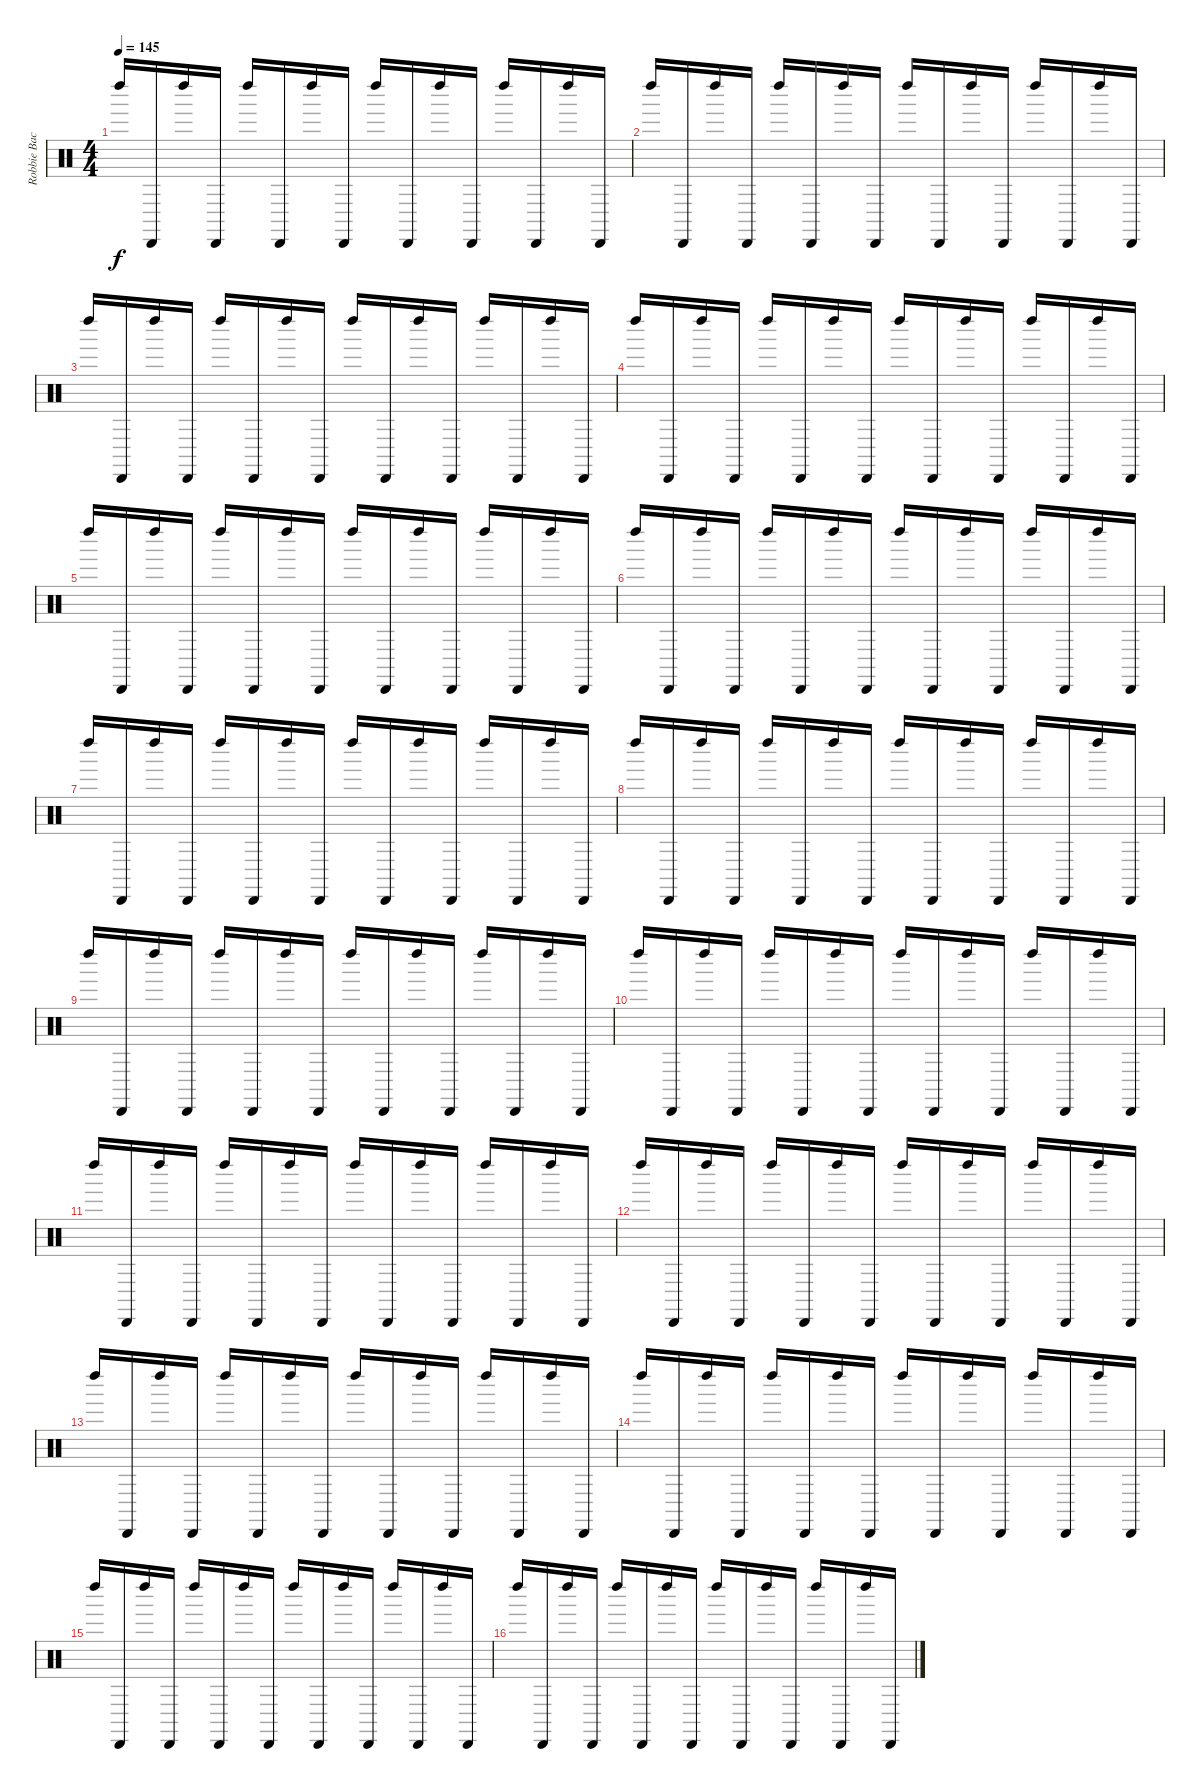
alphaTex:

\track ("Robbie Bachman 2" "Robbie Bac") {instrument percussion}
\staff {score}
\articulation defaults
\ts (4 4)
\tempo 145
\clef neutral
\ks c "Left Maraca (hit)".16{dy f} "Cabasa (hit)".16 "Left Maraca (hit)".16 "Cabasa (hit)".16 "Left Maraca (hit)".16 "Cabasa (hit)".16 "Left Maraca (hit)".16 "Cabasa (hit)".16 "Left Maraca (hit)".16 "Cabasa (hit)".16 "Left Maraca (hit)".16 "Cabasa (hit)".16 "Left Maraca (hit)".16 "Cabasa (hit)".16 "Left Maraca (hit)".16 "Cabasa (hit)".16
|
"Left Maraca (hit)".16 "Cabasa (hit)".16 "Left Maraca (hit)".16 "Cabasa (hit)".16 "Left Maraca (hit)".16 "Cabasa (hit)".16 "Left Maraca (hit)".16 "Cabasa (hit)".16 "Left Maraca (hit)".16 "Cabasa (hit)".16 "Left Maraca (hit)".16 "Cabasa (hit)".16 "Left Maraca (hit)".16 "Cabasa (hit)".16 "Left Maraca (hit)".16 "Cabasa (hit)".16 |
"Left Maraca (hit)".16 "Cabasa (hit)".16 "Left Maraca (hit)".16 "Cabasa (hit)".16 "Left Maraca (hit)".16 "Cabasa (hit)".16 "Left Maraca (hit)".16 "Cabasa (hit)".16 "Left Maraca (hit)".16 "Cabasa (hit)".16 "Left Maraca (hit)".16 "Cabasa (hit)".16 "Left Maraca (hit)".16 "Cabasa (hit)".16 "Left Maraca (hit)".16 "Cabasa (hit)".16 |
"Left Maraca (hit)".16 "Cabasa (hit)".16 "Left Maraca (hit)".16 "Cabasa (hit)".16 "Left Maraca (hit)".16 "Cabasa (hit)".16 "Left Maraca (hit)".16 "Cabasa (hit)".16 "Left Maraca (hit)".16 "Cabasa (hit)".16 "Left Maraca (hit)".16 "Cabasa (hit)".16 "Left Maraca (hit)".16 "Cabasa (hit)".16 "Left Maraca (hit)".16 "Cabasa (hit)".16 |
"Left Maraca (hit)".16 "Cabasa (hit)".16 "Left Maraca (hit)".16 "Cabasa (hit)".16 "Left Maraca (hit)".16 "Cabasa (hit)".16 "Left Maraca (hit)".16 "Cabasa (hit)".16 "Left Maraca (hit)".16 "Cabasa (hit)".16 "Left Maraca (hit)".16 "Cabasa (hit)".16 "Left Maraca (hit)".16 "Cabasa (hit)".16 "Left Maraca (hit)".16 "Cabasa (hit)".16 |
"Left Maraca (hit)".16 "Cabasa (hit)".16 "Left Maraca (hit)".16 "Cabasa (hit)".16 "Left Maraca (hit)".16 "Cabasa (hit)".16 "Left Maraca (hit)".16 "Cabasa (hit)".16 "Left Maraca (hit)".16 "Cabasa (hit)".16 "Left Maraca (hit)".16 "Cabasa (hit)".16 "Left Maraca (hit)".16 "Cabasa (hit)".16 "Left Maraca (hit)".16 "Cabasa (hit)".16 |
"Left Maraca (hit)".16 "Cabasa (hit)".16 "Left Maraca (hit)".16 "Cabasa (hit)".16 "Left Maraca (hit)".16 "Cabasa (hit)".16 "Left Maraca (hit)".16 "Cabasa (hit)".16 "Left Maraca (hit)".16 "Cabasa (hit)".16 "Left Maraca (hit)".16 "Cabasa (hit)".16 "Left Maraca (hit)".16 "Cabasa (hit)".16 "Left Maraca (hit)".16 "Cabasa (hit)".16 |
"Left Maraca (hit)".16 "Cabasa (hit)".16 "Left Maraca (hit)".16 "Cabasa (hit)".16 "Left Maraca (hit)".16 "Cabasa (hit)".16 "Left Maraca (hit)".16 "Cabasa (hit)".16 "Left Maraca (hit)".16 "Cabasa (hit)".16 "Left Maraca (hit)".16 "Cabasa (hit)".16 "Left Maraca (hit)".16 "Cabasa (hit)".16 "Left Maraca (hit)".16 "Cabasa (hit)".16 |
"Left Maraca (hit)".16 "Cabasa (hit)".16 "Left Maraca (hit)".16 "Cabasa (hit)".16 "Left Maraca (hit)".16 "Cabasa (hit)".16 "Left Maraca (hit)".16 "Cabasa (hit)".16 "Left Maraca (hit)".16 "Cabasa (hit)".16 "Left Maraca (hit)".16 "Cabasa (hit)".16 "Left Maraca (hit)".16 "Cabasa (hit)".16 "Left Maraca (hit)".16 "Cabasa (hit)".16 |
"Left Maraca (hit)".16 "Cabasa (hit)".16 "Left Maraca (hit)".16 "Cabasa (hit)".16 "Left Maraca (hit)".16 "Cabasa (hit)".16 "Left Maraca (hit)".16 "Cabasa (hit)".16 "Left Maraca (hit)".16 "Cabasa (hit)".16 "Left Maraca (hit)".16 "Cabasa (hit)".16 "Left Maraca (hit)".16 "Cabasa (hit)".16 "Left Maraca (hit)".16 "Cabasa (hit)".16 |
"Left Maraca (hit)".16 "Cabasa (hit)".16 "Left Maraca (hit)".16 "Cabasa (hit)".16 "Left Maraca (hit)".16 "Cabasa (hit)".16 "Left Maraca (hit)".16 "Cabasa (hit)".16 "Left Maraca (hit)".16 "Cabasa (hit)".16 "Left Maraca (hit)".16 "Cabasa (hit)".16 "Left Maraca (hit)".16 "Cabasa (hit)".16 "Left Maraca (hit)".16 "Cabasa (hit)".16 |
"Left Maraca (hit)".16 "Cabasa (hit)".16 "Left Maraca (hit)".16 "Cabasa (hit)".16 "Left Maraca (hit)".16 "Cabasa (hit)".16 "Left Maraca (hit)".16 "Cabasa (hit)".16 "Left Maraca (hit)".16 "Cabasa (hit)".16 "Left Maraca (hit)".16 "Cabasa (hit)".16 "Left Maraca (hit)".16 "Cabasa (hit)".16 "Left Maraca (hit)".16 "Cabasa (hit)".16 |
"Left Maraca (hit)".16 "Cabasa (hit)".16 "Left Maraca (hit)".16 "Cabasa (hit)".16 "Left Maraca (hit)".16 "Cabasa (hit)".16 "Left Maraca (hit)".16 "Cabasa (hit)".16 "Left Maraca (hit)".16 "Cabasa (hit)".16 "Left Maraca (hit)".16 "Cabasa (hit)".16 "Left Maraca (hit)".16 "Cabasa (hit)".16 "Left Maraca (hit)".16 "Cabasa (hit)".16 |
"Left Maraca (hit)".16 "Cabasa (hit)".16 "Left Maraca (hit)".16 "Cabasa (hit)".16 "Left Maraca (hit)".16 "Cabasa (hit)".16 "Left Maraca (hit)".16 "Cabasa (hit)".16 "Left Maraca (hit)".16 "Cabasa (hit)".16 "Left Maraca (hit)".16 "Cabasa (hit)".16 "Left Maraca (hit)".16 "Cabasa (hit)".16 "Left Maraca (hit)".16 "Cabasa (hit)".16 |
"Left Maraca (hit)".16 "Cabasa (hit)".16 "Left Maraca (hit)".16 "Cabasa (hit)".16 "Left Maraca (hit)".16 "Cabasa (hit)".16 "Left Maraca (hit)".16 "Cabasa (hit)".16 "Left Maraca (hit)".16 "Cabasa (hit)".16 "Left Maraca (hit)".16 "Cabasa (hit)".16 "Left Maraca (hit)".16 "Cabasa (hit)".16 "Left Maraca (hit)".16 "Cabasa (hit)".16 |
"Left Maraca (hit)".16 "Cabasa (hit)".16 "Left Maraca (hit)".16 "Cabasa (hit)".16 "Left Maraca (hit)".16 "Cabasa (hit)".16 "Left Maraca (hit)".16 "Cabasa (hit)".16 "Left Maraca (hit)".16 "Cabasa (hit)".16 "Left Maraca (hit)".16 "Cabasa (hit)".16 "Left Maraca (hit)".16 "Cabasa (hit)".16 "Left Maraca (hit)".16 "Cabasa (hit)".16
